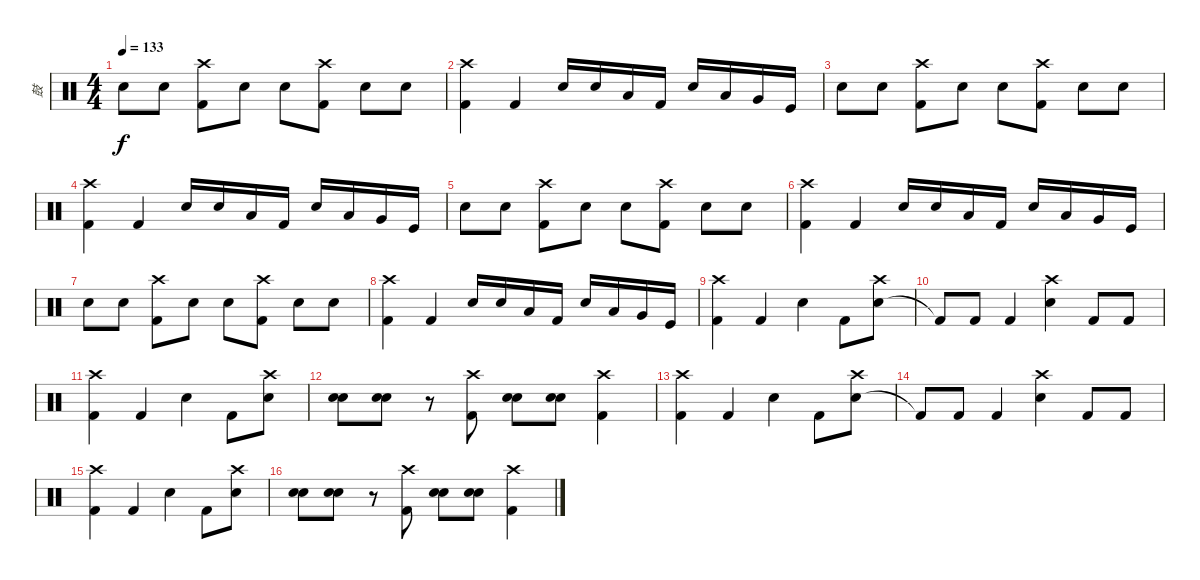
\track ("鼓" "鼓") {instrument percussion}
\staff {score}
\articulation defaults
\ts (4 4)
\tempo 133
\clef neutral
\ks c "Electric Snare (hit)".8{dy f} "Electric Snare (hit)".8
("Kick (hit) 2" "Crash high (hit)").8 "Electric Snare (hit)".8 "Electric Snare (hit)".8 ("Kick (hit) 2" "Crash high (hit)").8 "Electric Snare (hit)".8 "Electric Snare (hit)".8 |
("Kick (hit) 2" "Crash high (hit)").4 "Kick (hit) 2".4 "Snare (hit) 2".16 "Electric Snare (hit)".16 "Low Floor Tom (hit)".16 "Kick (hit) 2".16 "Electric Snare (hit)".16 "Low Floor Tom (hit)".16 "Very Low Tom (hit)".16 "Kick (hit)".16 |
"Electric Snare (hit)".8 "Electric Snare (hit)".8 ("Kick (hit) 2" "Crash high (hit)").8 "Electric Snare (hit)".8 "Electric Snare (hit)".8 ("Kick (hit) 2" "Crash high (hit)").8 "Electric Snare (hit)".8 "Electric Snare (hit)".8 |
("Kick (hit) 2" "Crash high (hit)").4 "Kick (hit) 2".4 "Snare (hit) 2".16 "Electric Snare (hit)".16 "Low Floor Tom (hit)".16 "Kick (hit) 2".16 "Electric Snare (hit)".16 "Low Floor Tom (hit)".16 "Very Low Tom (hit)".16 "Kick (hit)".16 |
"Electric Snare (hit)".8 "Electric Snare (hit)".8 ("Kick (hit) 2" "Crash high (hit)").8 "Electric Snare (hit)".8 "Electric Snare (hit)".8 ("Kick (hit) 2" "Crash high (hit)").8 "Electric Snare (hit)".8 "Electric Snare (hit)".8 |
("Kick (hit) 2" "Crash high (hit)").4 "Kick (hit) 2".4 "Snare (hit) 2".16 "Electric Snare (hit)".16 "Low Floor Tom (hit)".16 "Kick (hit) 2".16 "Electric Snare (hit)".16 "Low Floor Tom (hit)".16 "Very Low Tom (hit)".16 "Kick (hit)".16 |
"Electric Snare (hit)".8 "Electric Snare (hit)".8 ("Kick (hit) 2" "Crash high (hit)").8 "Electric Snare (hit)".8 "Electric Snare (hit)".8 ("Kick (hit) 2" "Crash high (hit)").8 "Electric Snare (hit)".8 "Electric Snare (hit)".8 |
("Kick (hit) 2" "Crash high (hit)").4 "Kick (hit) 2".4 "Snare (hit) 2".16 "Electric Snare (hit)".16 "Low Floor Tom (hit)".16 "Kick (hit) 2".16 "Electric Snare (hit)".16 "Low Floor Tom (hit)".16 "Very Low Tom (hit)".16 "Kick (hit)".16 |
("Kick (hit) 2" "Crash high (hit)").4 "Kick (hit) 2".4 "Electric Snare (hit)".4 "Kick (hit) 2".8 ("Electric Snare (hit)" "Crash high (hit)").8 |
"Kick (hit) 2"{t}.8 "Kick (hit) 2".8 "Kick (hit) 2".4 ("Electric Snare (hit)" "Crash high (hit)").4 "Kick (hit) 2".8 "Kick (hit) 2".8 |
("Kick (hit) 2" "Crash high (hit)").4 "Kick (hit) 2".4 "Electric Snare (hit)".4 "Kick (hit) 2".8 ("Electric Snare (hit)" "Crash high (hit)").8 |
("Electric Snare (hit)" "Snare (hit) 2").8 ("Electric Snare (hit)" "Snare (hit) 2").8 r.8 ("Kick (hit) 2" "Crash high (hit)").8 ("Electric Snare (hit)" "Snare (hit) 2").8 ("Electric Snare (hit)" "Snare (hit) 2").8 ("Kick (hit) 2" "Crash high (hit)").4 |
("Kick (hit) 2" "Crash high (hit)").4 "Kick (hit) 2".4 "Electric Snare (hit)".4 "Kick (hit) 2".8 ("Electric Snare (hit)" "Crash high (hit)").8 |
"Kick (hit) 2"{t}.8 "Kick (hit) 2".8 "Kick (hit) 2".4 ("Electric Snare (hit)" "Crash high (hit)").4 "Kick (hit) 2".8 "Kick (hit) 2".8 |
("Kick (hit) 2" "Crash high (hit)").4 "Kick (hit) 2".4 "Electric Snare (hit)".4 "Kick (hit) 2".8 ("Electric Snare (hit)" "Crash high (hit)").8 |
("Electric Snare (hit)" "Snare (hit) 2").8 ("Electric Snare (hit)" "Snare (hit) 2").8 r.8 ("Kick (hit) 2" "Crash high (hit)").8 ("Electric Snare (hit)" "Snare (hit) 2").8 ("Electric Snare (hit)" "Snare (hit) 2").8 ("Kick (hit) 2" "Crash high (hit)").4
